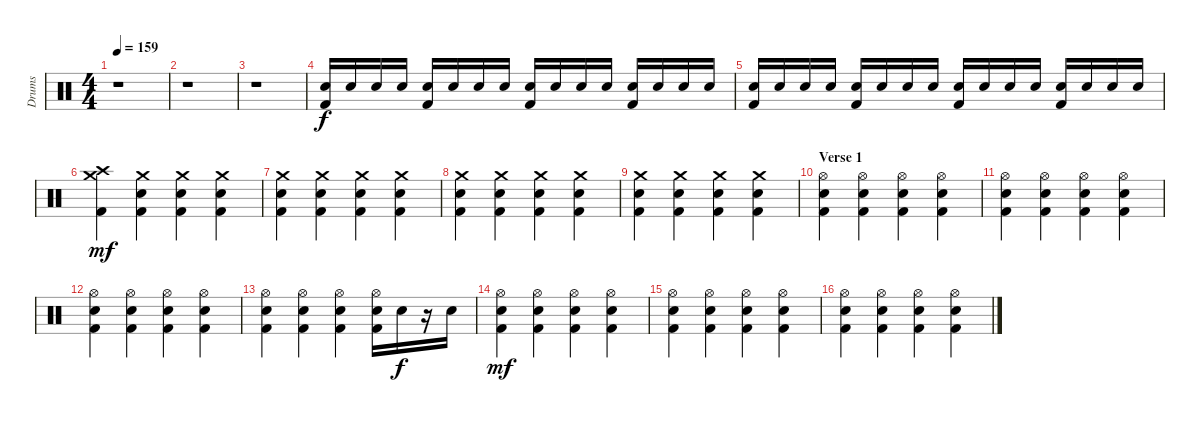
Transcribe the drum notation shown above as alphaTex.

\track ("Drums" "Drums") {instrument percussion}
\staff {score}
\articulation defaults
\ts (4 4)
\tempo 159
\clef neutral
\ks c
r.1{dy f} |
r.1 |
r.1{volume 6} |
("Snare (hit) 2" "Kick (hit) 2").16{volume 13} "Snare (hit) 2".16 "Snare (hit) 2".16 "Snare (hit) 2".16 ("Snare (hit) 2" "Kick (hit) 2").16 "Snare (hit) 2".16 "Snare (hit) 2".16 "Snare (hit) 2".16 ("Snare (hit) 2" "Kick (hit) 2").16 "Snare (hit) 2".16 "Snare (hit) 2".16 "Snare (hit) 2".16 ("Snare (hit) 2" "Kick (hit) 2").16 "Snare (hit) 2".16 "Snare (hit) 2".16 "Snare (hit) 2".16 |
("Snare (hit) 2" "Kick (hit) 2").16 "Snare (hit) 2".16 "Snare (hit) 2".16 "Snare (hit) 2".16 ("Snare (hit) 2" "Kick (hit) 2").16 "Snare (hit) 2".16 "Snare (hit) 2".16 "Snare (hit) 2".16 ("Snare (hit) 2" "Kick (hit) 2").16 "Snare (hit) 2".16 "Snare (hit) 2".16 "Snare (hit) 2".16 ("Snare (hit) 2" "Kick (hit) 2").16 "Snare (hit) 2".16 "Snare (hit) 2".16 "Snare (hit) 2".16 |
("Crash medium (hit)" "Crash high (hit)" "Kick (hit) 2").4{dy mf volume 13} ("Crash medium (hit)" "Snare (hit) 2" "Kick (hit) 2").4 ("Crash medium (hit)" "Snare (hit) 2" "Kick (hit) 2").4 ("Crash medium (hit)" "Snare (hit) 2" "Kick (hit) 2").4 |
("Crash medium (hit)" "Snare (hit) 2" "Kick (hit) 2").4 ("Crash medium (hit)" "Snare (hit) 2" "Kick (hit) 2").4 ("Crash medium (hit)" "Snare (hit) 2" "Kick (hit) 2").4 ("Crash medium (hit)" "Snare (hit) 2" "Kick (hit) 2").4 |
("Crash medium (hit)" "Snare (hit) 2" "Kick (hit) 2").4 ("Crash medium (hit)" "Snare (hit) 2" "Kick (hit) 2").4 ("Crash medium (hit)" "Snare (hit) 2" "Kick (hit) 2").4 ("Crash medium (hit)" "Snare (hit) 2" "Kick (hit) 2").4 |
("Crash medium (hit)" "Snare (hit) 2" "Kick (hit) 2").4 ("Crash medium (hit)" "Snare (hit) 2" "Kick (hit) 2").4 ("Crash medium (hit)" "Snare (hit) 2" "Kick (hit) 2").4 ("Crash medium (hit)" "Snare (hit) 2" "Kick (hit) 2").4 |
\section ("" "Verse 1")
("Hi-Hat (open)" "Snare (hit) 2" "Kick (hit) 2").4 ("Hi-Hat (open)" "Snare (hit) 2" "Kick (hit) 2").4 ("Hi-Hat (open)" "Snare (hit) 2" "Kick (hit) 2").4 ("Hi-Hat (open)" "Snare (hit) 2" "Kick (hit) 2").4 |
("Hi-Hat (open)" "Snare (hit) 2" "Kick (hit) 2").4 ("Hi-Hat (open)" "Snare (hit) 2" "Kick (hit) 2").4 ("Hi-Hat (open)" "Snare (hit) 2" "Kick (hit) 2").4 ("Hi-Hat (open)" "Snare (hit) 2" "Kick (hit) 2").4 |
("Hi-Hat (open)" "Snare (hit) 2" "Kick (hit) 2").4 ("Hi-Hat (open)" "Snare (hit) 2" "Kick (hit) 2").4 ("Hi-Hat (open)" "Snare (hit) 2" "Kick (hit) 2").4 ("Hi-Hat (open)" "Snare (hit) 2" "Kick (hit) 2").4 |
("Hi-Hat (open)" "Snare (hit) 2" "Kick (hit) 2").4 ("Hi-Hat (open)" "Snare (hit) 2" "Kick (hit) 2").4 ("Hi-Hat (open)" "Snare (hit) 2" "Kick (hit) 2").4 ("Hi-Hat (open)" "Snare (hit) 2" "Kick (hit) 2").16 "Snare (hit) 2".16{dy f} r.16 "Snare (hit) 2".16 |
("Hi-Hat (open)" "Snare (hit) 2" "Kick (hit) 2").4{dy mf} ("Hi-Hat (open)" "Snare (hit) 2" "Kick (hit) 2").4 ("Hi-Hat (open)" "Snare (hit) 2" "Kick (hit) 2").4 ("Hi-Hat (open)" "Snare (hit) 2" "Kick (hit) 2").4 |
("Hi-Hat (open)" "Snare (hit) 2" "Kick (hit) 2").4 ("Hi-Hat (open)" "Snare (hit) 2" "Kick (hit) 2").4 ("Hi-Hat (open)" "Snare (hit) 2" "Kick (hit) 2").4 ("Hi-Hat (open)" "Snare (hit) 2" "Kick (hit) 2").4 |
("Hi-Hat (open)" "Snare (hit) 2" "Kick (hit) 2").4 ("Hi-Hat (open)" "Snare (hit) 2" "Kick (hit) 2").4 ("Hi-Hat (open)" "Snare (hit) 2" "Kick (hit) 2").4 ("Hi-Hat (open)" "Snare (hit) 2" "Kick (hit) 2").4
